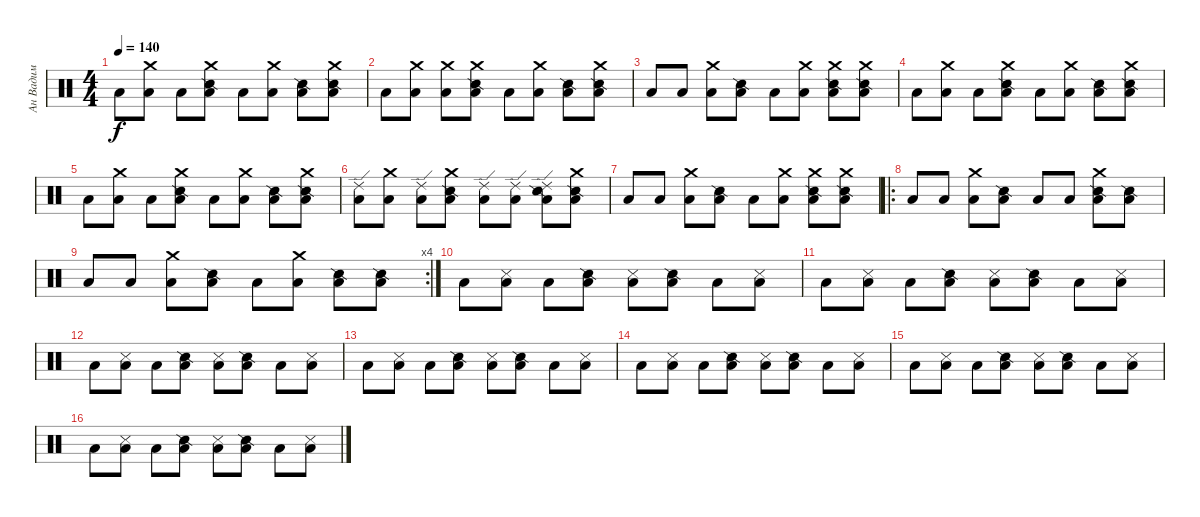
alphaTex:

\track ("Ан Вадим" "Ан Вадим") {instrument percussion}
\staff {score}
\articulation defaults
\ts (4 4)
\tempo 140
\clef neutral
\ks c "Low Floor Tom (hit)".8{dy f}
("Low Floor Tom (hit)" "Crash medium (hit)").8 "Low Floor Tom (hit)".8 ("Snare (side stick) 2" "Low Floor Tom (hit)" "Crash medium (hit)").8 "Low Floor Tom (hit)".8 ("Low Floor Tom (hit)" "Crash medium (hit)").8 ("Snare (side stick) 2" "Low Floor Tom (hit)").8 ("Snare (side stick) 2" "Low Floor Tom (hit)" "Crash medium (hit)").8 |
"Low Floor Tom (hit)".8 ("Low Floor Tom (hit)" "Crash medium (hit)").8 ("Low Floor Tom (hit)" "Crash medium (hit)").8 ("Snare (side stick) 2" "Low Floor Tom (hit)" "Crash medium (hit)").8 "Low Floor Tom (hit)".8 ("Low Floor Tom (hit)" "Crash medium (hit)").8 ("Snare (side stick) 2" "Low Floor Tom (hit)").8 ("Snare (side stick) 2" "Low Floor Tom (hit)" "Crash medium (hit)").8 |
"Low Floor Tom (hit)".8 "Low Floor Tom (hit)".8 ("Low Floor Tom (hit)" "Crash medium (hit)").8 ("Snare (side stick) 2" "Low Floor Tom (hit)").8 "Low Floor Tom (hit)".8 ("Low Floor Tom (hit)" "Crash medium (hit)").8 ("Snare (side stick) 2" "Low Floor Tom (hit)" "Crash medium (hit)").8 ("Snare (side stick) 2" "Low Floor Tom (hit)" "Crash medium (hit)").8 |
"Low Floor Tom (hit)".8 ("Low Floor Tom (hit)" "Crash medium (hit)").8 "Low Floor Tom (hit)".8 ("Snare (side stick) 2" "Low Floor Tom (hit)" "Crash medium (hit)").8 "Low Floor Tom (hit)".8 ("Low Floor Tom (hit)" "Crash medium (hit)").8 ("Snare (side stick) 2" "Low Floor Tom (hit)").8 ("Snare (side stick) 2" "Low Floor Tom (hit)" "Crash medium (hit)").8 |
"Low Floor Tom (hit)".8 ("Low Floor Tom (hit)" "Crash medium (hit)").8 "Low Floor Tom (hit)".8 ("Snare (side stick) 2" "Low Floor Tom (hit)" "Crash medium (hit)").8 "Low Floor Tom (hit)".8 ("Low Floor Tom (hit)" "Crash medium (hit)").8 ("Snare (side stick) 2" "Low Floor Tom (hit)").8 ("Snare (side stick) 2" "Low Floor Tom (hit)" "Crash medium (hit)").8 |
("Low Floor Tom (hit)" "Ride (edge) 2").8 ("Low Floor Tom (hit)" "Crash medium (hit)").8 ("Low Floor Tom (hit)" "Ride (edge) 2").8 ("Snare (side stick) 2" "Low Floor Tom (hit)" "Crash medium (hit)").8 ("Low Floor Tom (hit)" "Ride (edge) 2").8 ("Low Floor Tom (hit)" "Ride (edge) 2").8 ("Snare (side stick) 2" "Low Floor Tom (hit)" "Ride (edge) 2").8 ("Snare (side stick) 2" "Low Floor Tom (hit)" "Crash medium (hit)").8 |
"Low Floor Tom (hit)".8 "Low Floor Tom (hit)".8 ("Low Floor Tom (hit)" "Crash medium (hit)").8 ("Snare (side stick) 2" "Low Floor Tom (hit)").8 "Low Floor Tom (hit)".8 ("Low Floor Tom (hit)" "Crash medium (hit)").8 ("Snare (side stick) 2" "Low Floor Tom (hit)" "Crash medium (hit)").8 ("Snare (side stick) 2" "Low Floor Tom (hit)" "Crash medium (hit)").8 |
\ro "Low Floor Tom (hit)".8 "Low Floor Tom (hit)".8
("Crash medium (hit)" "Low Floor Tom (hit)").8 ("Snare (side stick) 2" "Low Floor Tom (hit)").8 "Low Floor Tom (hit)".8 "Low Floor Tom (hit)".8 ("Snare (side stick) 2" "Crash medium (hit)" "Low Floor Tom (hit)").8 ("Snare (side stick) 2" "Low Floor Tom (hit)").8 |
\rc 4 "Low Floor Tom (hit)".8 "Low Floor Tom (hit)".8
("Crash medium (hit)" "Low Floor Tom (hit)").8 ("Snare (side stick) 2" "Low Floor Tom (hit)").8 "Low Floor Tom (hit)".8 ("Crash medium (hit)" "Low Floor Tom (hit)").8 ("Snare (side stick) 2" "Low Floor Tom (hit)").8 ("Snare (side stick) 2" "Low Floor Tom (hit)").8 |
"Low Floor Tom (hit)".8 ("Metronome (hit)" "Low Floor Tom (hit)").8 "Low Floor Tom (hit)".8 ("Snare (side stick) 2" "Low Floor Tom (hit)").8 ("Metronome (hit)" "Low Floor Tom (hit)").8 ("Snare (side stick) 2" "Low Floor Tom (hit)").8 "Low Floor Tom (hit)".8 ("Metronome (hit)" "Low Floor Tom (hit)").8 |
"Low Floor Tom (hit)".8 ("Metronome (hit)" "Low Floor Tom (hit)").8 "Low Floor Tom (hit)".8 ("Snare (side stick) 2" "Low Floor Tom (hit)").8 ("Metronome (hit)" "Low Floor Tom (hit)").8 ("Snare (side stick) 2" "Low Floor Tom (hit)").8 "Low Floor Tom (hit)".8 ("Metronome (hit)" "Low Floor Tom (hit)").8 |
"Low Floor Tom (hit)".8 ("Metronome (hit)" "Low Floor Tom (hit)").8 "Low Floor Tom (hit)".8 ("Snare (side stick) 2" "Low Floor Tom (hit)").8 ("Metronome (hit)" "Low Floor Tom (hit)").8 ("Snare (side stick) 2" "Low Floor Tom (hit)").8 "Low Floor Tom (hit)".8 ("Metronome (hit)" "Low Floor Tom (hit)").8 |
"Low Floor Tom (hit)".8 ("Metronome (hit)" "Low Floor Tom (hit)").8 "Low Floor Tom (hit)".8 ("Snare (side stick) 2" "Low Floor Tom (hit)").8 ("Metronome (hit)" "Low Floor Tom (hit)").8 ("Snare (side stick) 2" "Low Floor Tom (hit)").8 "Low Floor Tom (hit)".8 ("Metronome (hit)" "Low Floor Tom (hit)").8 |
"Low Floor Tom (hit)".8 ("Metronome (hit)" "Low Floor Tom (hit)").8 "Low Floor Tom (hit)".8 ("Snare (side stick) 2" "Low Floor Tom (hit)").8 ("Metronome (hit)" "Low Floor Tom (hit)").8 ("Snare (side stick) 2" "Low Floor Tom (hit)").8 "Low Floor Tom (hit)".8 ("Metronome (hit)" "Low Floor Tom (hit)").8 |
"Low Floor Tom (hit)".8 ("Metronome (hit)" "Low Floor Tom (hit)").8 "Low Floor Tom (hit)".8 ("Snare (side stick) 2" "Low Floor Tom (hit)").8 ("Metronome (hit)" "Low Floor Tom (hit)").8 ("Snare (side stick) 2" "Low Floor Tom (hit)").8 "Low Floor Tom (hit)".8 ("Metronome (hit)" "Low Floor Tom (hit)").8 |
"Low Floor Tom (hit)".8 ("Metronome (hit)" "Low Floor Tom (hit)").8 "Low Floor Tom (hit)".8 ("Snare (side stick) 2" "Low Floor Tom (hit)").8 ("Metronome (hit)" "Low Floor Tom (hit)").8 ("Snare (side stick) 2" "Low Floor Tom (hit)").8 "Low Floor Tom (hit)".8 ("Metronome (hit)" "Low Floor Tom (hit)").8
